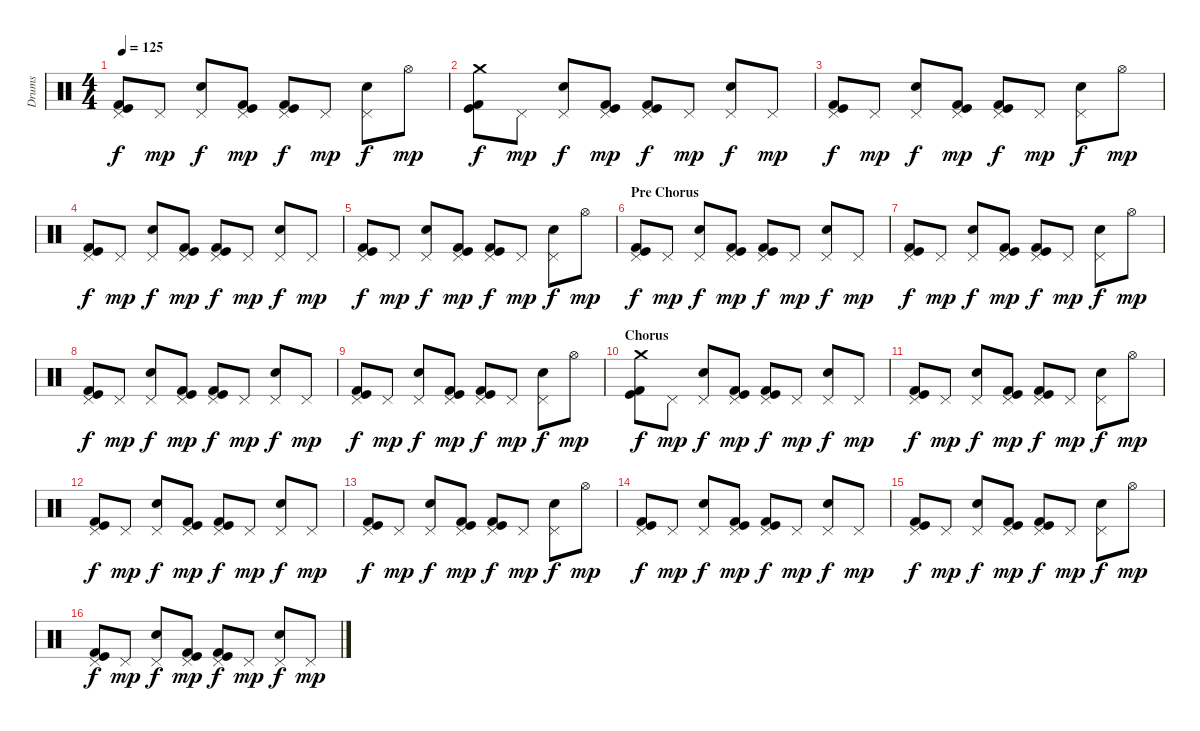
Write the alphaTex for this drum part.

\track ("Drums" "Drums") {instrument percussion}
\staff {score}
\articulation defaults
\ts (4 4)
\tempo 125
\clef neutral
\ks c
("Pedal Hi-Hat (hit)" "Kick (hit) 2" "Kick (hit)").8{dy f} "Pedal Hi-Hat (hit)".8{dy mp} ("Pedal Hi-Hat (hit)" "Electric Snare (hit)").8{dy f} ("Pedal Hi-Hat (hit)" "Kick (hit) 2" "Kick (hit)").8{dy mp} ("Pedal Hi-Hat (hit)" "Kick (hit) 2" "Kick (hit)").8{dy f} "Pedal Hi-Hat (hit)".8{dy mp} ("Pedal Hi-Hat (hit)" "Electric Snare (hit)").8{dy f} "Hi-Hat (open)".8{dy mp} |
("Crash medium (hit)" "Kick (hit) 2" "Kick (hit)").8{dy f} "Pedal Hi-Hat (hit)".8{dy mp} ("Pedal Hi-Hat (hit)" "Electric Snare (hit)").8{dy f} ("Pedal Hi-Hat (hit)" "Kick (hit) 2" "Kick (hit)").8{dy mp} ("Pedal Hi-Hat (hit)" "Kick (hit) 2" "Kick (hit)").8{dy f} "Pedal Hi-Hat (hit)".8{dy mp} ("Pedal Hi-Hat (hit)" "Electric Snare (hit)").8{dy f} "Pedal Hi-Hat (hit)".8{dy mp} |
("Pedal Hi-Hat (hit)" "Kick (hit) 2" "Kick (hit)").8{dy f} "Pedal Hi-Hat (hit)".8{dy mp} ("Pedal Hi-Hat (hit)" "Electric Snare (hit)").8{dy f} ("Pedal Hi-Hat (hit)" "Kick (hit) 2" "Kick (hit)").8{dy mp} ("Pedal Hi-Hat (hit)" "Kick (hit) 2" "Kick (hit)").8{dy f} "Pedal Hi-Hat (hit)".8{dy mp} ("Pedal Hi-Hat (hit)" "Electric Snare (hit)").8{dy f} "Hi-Hat (open)".8{dy mp} |
("Pedal Hi-Hat (hit)" "Kick (hit) 2" "Kick (hit)").8{dy f} "Pedal Hi-Hat (hit)".8{dy mp} ("Pedal Hi-Hat (hit)" "Electric Snare (hit)").8{dy f} ("Pedal Hi-Hat (hit)" "Kick (hit) 2" "Kick (hit)").8{dy mp} ("Pedal Hi-Hat (hit)" "Kick (hit) 2" "Kick (hit)").8{dy f} "Pedal Hi-Hat (hit)".8{dy mp} ("Pedal Hi-Hat (hit)" "Electric Snare (hit)").8{dy f} "Pedal Hi-Hat (hit)".8{dy mp} |
("Pedal Hi-Hat (hit)" "Kick (hit) 2" "Kick (hit)").8{dy f} "Pedal Hi-Hat (hit)".8{dy mp} ("Pedal Hi-Hat (hit)" "Electric Snare (hit)").8{dy f} ("Pedal Hi-Hat (hit)" "Kick (hit) 2" "Kick (hit)").8{dy mp} ("Pedal Hi-Hat (hit)" "Kick (hit) 2" "Kick (hit)").8{dy f} "Pedal Hi-Hat (hit)".8{dy mp} ("Pedal Hi-Hat (hit)" "Electric Snare (hit)").8{dy f} "Hi-Hat (open)".8{dy mp} |
\section ("" "Pre Chorus")
("Pedal Hi-Hat (hit)" "Kick (hit) 2" "Kick (hit)").8{dy f} "Pedal Hi-Hat (hit)".8{dy mp} ("Pedal Hi-Hat (hit)" "Electric Snare (hit)").8{dy f} ("Pedal Hi-Hat (hit)" "Kick (hit) 2" "Kick (hit)").8{dy mp} ("Pedal Hi-Hat (hit)" "Kick (hit) 2" "Kick (hit)").8{dy f} "Pedal Hi-Hat (hit)".8{dy mp} ("Pedal Hi-Hat (hit)" "Electric Snare (hit)").8{dy f} "Pedal Hi-Hat (hit)".8{dy mp} |
("Pedal Hi-Hat (hit)" "Kick (hit) 2" "Kick (hit)").8{dy f} "Pedal Hi-Hat (hit)".8{dy mp} ("Pedal Hi-Hat (hit)" "Electric Snare (hit)").8{dy f} ("Pedal Hi-Hat (hit)" "Kick (hit) 2" "Kick (hit)").8{dy mp} ("Pedal Hi-Hat (hit)" "Kick (hit) 2" "Kick (hit)").8{dy f} "Pedal Hi-Hat (hit)".8{dy mp} ("Pedal Hi-Hat (hit)" "Electric Snare (hit)").8{dy f} "Hi-Hat (open)".8{dy mp} |
("Pedal Hi-Hat (hit)" "Kick (hit) 2" "Kick (hit)").8{dy f} "Pedal Hi-Hat (hit)".8{dy mp} ("Pedal Hi-Hat (hit)" "Electric Snare (hit)").8{dy f} ("Pedal Hi-Hat (hit)" "Kick (hit) 2" "Kick (hit)").8{dy mp} ("Pedal Hi-Hat (hit)" "Kick (hit) 2" "Kick (hit)").8{dy f} "Pedal Hi-Hat (hit)".8{dy mp} ("Pedal Hi-Hat (hit)" "Electric Snare (hit)").8{dy f} "Pedal Hi-Hat (hit)".8{dy mp} |
("Pedal Hi-Hat (hit)" "Kick (hit) 2" "Kick (hit)").8{dy f} "Pedal Hi-Hat (hit)".8{dy mp} ("Pedal Hi-Hat (hit)" "Electric Snare (hit)").8{dy f} ("Pedal Hi-Hat (hit)" "Kick (hit) 2" "Kick (hit)").8{dy mp} ("Pedal Hi-Hat (hit)" "Kick (hit) 2" "Kick (hit)").8{dy f} "Pedal Hi-Hat (hit)".8{dy mp} ("Pedal Hi-Hat (hit)" "Electric Snare (hit)").8{dy f} "Hi-Hat (open)".8{dy mp} |
\section ("" "Chorus")
("Crash medium (hit)" "Kick (hit) 2" "Kick (hit)").8{dy f} "Pedal Hi-Hat (hit)".8{dy mp} ("Pedal Hi-Hat (hit)" "Electric Snare (hit)").8{dy f} ("Pedal Hi-Hat (hit)" "Kick (hit) 2" "Kick (hit)").8{dy mp} ("Pedal Hi-Hat (hit)" "Kick (hit) 2" "Kick (hit)").8{dy f} "Pedal Hi-Hat (hit)".8{dy mp} ("Pedal Hi-Hat (hit)" "Electric Snare (hit)").8{dy f} "Pedal Hi-Hat (hit)".8{dy mp} |
("Pedal Hi-Hat (hit)" "Kick (hit) 2" "Kick (hit)").8{dy f} "Pedal Hi-Hat (hit)".8{dy mp} ("Pedal Hi-Hat (hit)" "Electric Snare (hit)").8{dy f} ("Pedal Hi-Hat (hit)" "Kick (hit) 2" "Kick (hit)").8{dy mp} ("Pedal Hi-Hat (hit)" "Kick (hit) 2" "Kick (hit)").8{dy f} "Pedal Hi-Hat (hit)".8{dy mp} ("Pedal Hi-Hat (hit)" "Electric Snare (hit)").8{dy f} "Hi-Hat (open)".8{dy mp} |
("Pedal Hi-Hat (hit)" "Kick (hit) 2" "Kick (hit)").8{dy f} "Pedal Hi-Hat (hit)".8{dy mp} ("Pedal Hi-Hat (hit)" "Electric Snare (hit)").8{dy f} ("Pedal Hi-Hat (hit)" "Kick (hit) 2" "Kick (hit)").8{dy mp} ("Pedal Hi-Hat (hit)" "Kick (hit) 2" "Kick (hit)").8{dy f} "Pedal Hi-Hat (hit)".8{dy mp} ("Pedal Hi-Hat (hit)" "Electric Snare (hit)").8{dy f} "Pedal Hi-Hat (hit)".8{dy mp} |
("Pedal Hi-Hat (hit)" "Kick (hit) 2" "Kick (hit)").8{dy f} "Pedal Hi-Hat (hit)".8{dy mp} ("Pedal Hi-Hat (hit)" "Electric Snare (hit)").8{dy f} ("Pedal Hi-Hat (hit)" "Kick (hit) 2" "Kick (hit)").8{dy mp} ("Pedal Hi-Hat (hit)" "Kick (hit) 2" "Kick (hit)").8{dy f} "Pedal Hi-Hat (hit)".8{dy mp} ("Pedal Hi-Hat (hit)" "Electric Snare (hit)").8{dy f} "Hi-Hat (open)".8{dy mp} |
("Pedal Hi-Hat (hit)" "Kick (hit) 2" "Kick (hit)").8{dy f} "Pedal Hi-Hat (hit)".8{dy mp} ("Pedal Hi-Hat (hit)" "Electric Snare (hit)").8{dy f} ("Pedal Hi-Hat (hit)" "Kick (hit) 2" "Kick (hit)").8{dy mp} ("Pedal Hi-Hat (hit)" "Kick (hit) 2" "Kick (hit)").8{dy f} "Pedal Hi-Hat (hit)".8{dy mp} ("Pedal Hi-Hat (hit)" "Electric Snare (hit)").8{dy f} "Pedal Hi-Hat (hit)".8{dy mp} |
("Pedal Hi-Hat (hit)" "Kick (hit) 2" "Kick (hit)").8{dy f} "Pedal Hi-Hat (hit)".8{dy mp} ("Pedal Hi-Hat (hit)" "Electric Snare (hit)").8{dy f} ("Pedal Hi-Hat (hit)" "Kick (hit) 2" "Kick (hit)").8{dy mp} ("Pedal Hi-Hat (hit)" "Kick (hit) 2" "Kick (hit)").8{dy f} "Pedal Hi-Hat (hit)".8{dy mp} ("Pedal Hi-Hat (hit)" "Electric Snare (hit)").8{dy f} "Hi-Hat (open)".8{dy mp} |
("Pedal Hi-Hat (hit)" "Kick (hit) 2" "Kick (hit)").8{dy f} "Pedal Hi-Hat (hit)".8{dy mp} ("Pedal Hi-Hat (hit)" "Electric Snare (hit)").8{dy f} ("Pedal Hi-Hat (hit)" "Kick (hit) 2" "Kick (hit)").8{dy mp} ("Pedal Hi-Hat (hit)" "Kick (hit) 2" "Kick (hit)").8{dy f} "Pedal Hi-Hat (hit)".8{dy mp} ("Pedal Hi-Hat (hit)" "Electric Snare (hit)").8{dy f} "Pedal Hi-Hat (hit)".8{dy mp}
